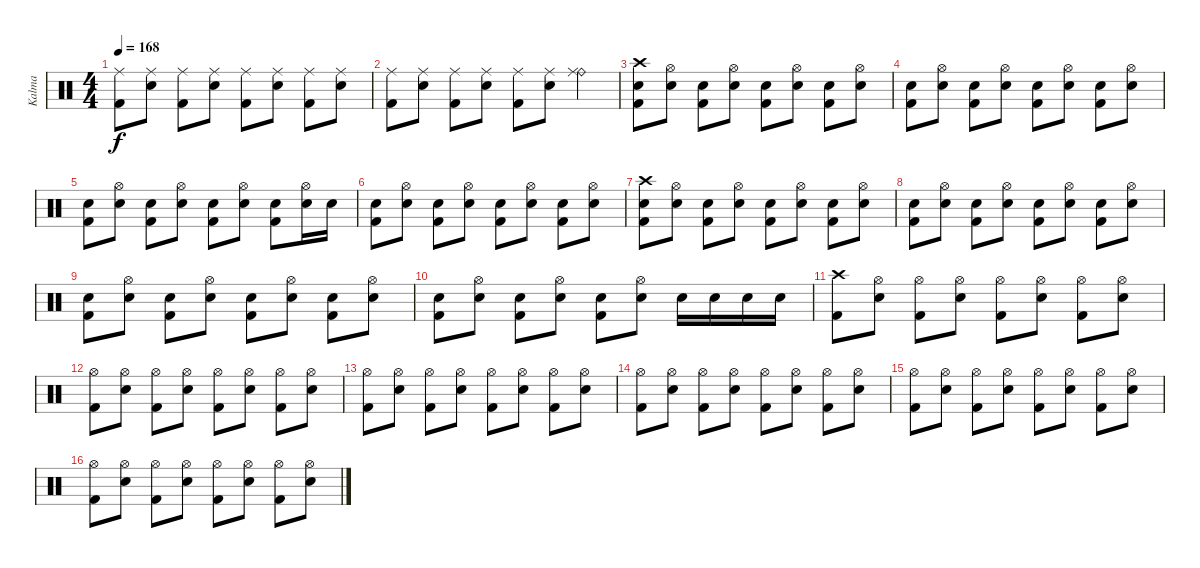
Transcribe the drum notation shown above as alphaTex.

\track ("Kalma" "Kalma") {instrument percussion}
\staff {score}
\articulation defaults
\ts (4 4)
\tempo 168
\clef neutral
\ks c
("Ride (middle)" "Kick (hit) 2").8{dy f} ("Ride (middle)" "Snare (hit) 2").8 ("Ride (middle)" "Kick (hit) 2").8 ("Ride (middle)" "Snare (hit) 2").8 ("Ride (middle)" "Kick (hit) 2").8 ("Ride (middle)" "Snare (hit) 2").8 ("Ride (middle)" "Kick (hit) 2").8 ("Ride (middle)" "Snare (hit) 2").8 |
("Ride (middle)" "Kick (hit) 2").8 ("Ride (middle)" "Snare (hit) 2").8 ("Ride (middle)" "Kick (hit) 2").8 ("Ride (middle)" "Snare (hit) 2").8 ("Ride (middle)" "Kick (hit) 2").8 ("Ride (middle)" "Snare (hit) 2").8 ("Ride (bell)" "Ride (middle)").4 |
("Crash high (hit)" "Snare (hit) 2" "Kick (hit) 2").8 ("Hi-Hat (open)" "Snare (hit) 2").8 ("Snare (hit) 2" "Kick (hit) 2").8 ("Hi-Hat (open)" "Snare (hit) 2").8 ("Snare (hit) 2" "Kick (hit) 2").8 ("Hi-Hat (open)" "Snare (hit) 2").8 ("Snare (hit) 2" "Kick (hit) 2").8 ("Hi-Hat (open)" "Snare (hit) 2").8 |
("Snare (hit) 2" "Kick (hit) 2").8 ("Hi-Hat (open)" "Snare (hit) 2").8 ("Snare (hit) 2" "Kick (hit) 2").8 ("Hi-Hat (open)" "Snare (hit) 2").8 ("Snare (hit) 2" "Kick (hit) 2").8 ("Hi-Hat (open)" "Snare (hit) 2").8 ("Snare (hit) 2" "Kick (hit) 2").8 ("Hi-Hat (open)" "Snare (hit) 2").8 |
("Snare (hit) 2" "Kick (hit) 2").8 ("Hi-Hat (open)" "Snare (hit) 2").8 ("Snare (hit) 2" "Kick (hit) 2").8 ("Hi-Hat (open)" "Snare (hit) 2").8 ("Snare (hit) 2" "Kick (hit) 2").8 ("Hi-Hat (open)" "Snare (hit) 2").8 ("Snare (hit) 2" "Kick (hit) 2").8 ("Hi-Hat (open)" "Snare (hit) 2").16 "Snare (hit) 2".16 |
("Snare (hit) 2" "Kick (hit) 2").8 ("Hi-Hat (open)" "Snare (hit) 2").8 ("Snare (hit) 2" "Kick (hit) 2").8 ("Hi-Hat (open)" "Snare (hit) 2").8 ("Snare (hit) 2" "Kick (hit) 2").8 ("Hi-Hat (open)" "Snare (hit) 2").8 ("Snare (hit) 2" "Kick (hit) 2").8 ("Hi-Hat (open)" "Snare (hit) 2").8 |
("Crash high (hit)" "Snare (hit) 2" "Kick (hit) 2").8 ("Hi-Hat (open)" "Snare (hit) 2").8 ("Snare (hit) 2" "Kick (hit) 2").8 ("Hi-Hat (open)" "Snare (hit) 2").8 ("Snare (hit) 2" "Kick (hit) 2").8 ("Hi-Hat (open)" "Snare (hit) 2").8 ("Snare (hit) 2" "Kick (hit) 2").8 ("Hi-Hat (open)" "Snare (hit) 2").8 |
("Snare (hit) 2" "Kick (hit) 2").8 ("Hi-Hat (open)" "Snare (hit) 2").8 ("Snare (hit) 2" "Kick (hit) 2").8 ("Hi-Hat (open)" "Snare (hit) 2").8 ("Snare (hit) 2" "Kick (hit) 2").8 ("Hi-Hat (open)" "Snare (hit) 2").8 ("Snare (hit) 2" "Kick (hit) 2").8 ("Hi-Hat (open)" "Snare (hit) 2").8 |
("Snare (hit) 2" "Kick (hit) 2").8 ("Hi-Hat (open)" "Snare (hit) 2").8 ("Snare (hit) 2" "Kick (hit) 2").8 ("Hi-Hat (open)" "Snare (hit) 2").8 ("Snare (hit) 2" "Kick (hit) 2").8 ("Hi-Hat (open)" "Snare (hit) 2").8 ("Snare (hit) 2" "Kick (hit) 2").8 ("Hi-Hat (open)" "Snare (hit) 2").8 |
("Snare (hit) 2" "Kick (hit) 2").8 ("Hi-Hat (open)" "Snare (hit) 2").8 ("Snare (hit) 2" "Kick (hit) 2").8 ("Hi-Hat (open)" "Snare (hit) 2").8 ("Snare (hit) 2" "Kick (hit) 2").8 ("Hi-Hat (open)" "Snare (hit) 2").8 "Snare (hit) 2".16 "Snare (hit) 2".16 "Snare (hit) 2".16 "Snare (hit) 2".16 |
("Crash high (hit)" "Kick (hit) 2").8 ("Hi-Hat (open)" "Snare (hit) 2").8 ("Hi-Hat (open)" "Kick (hit) 2").8 ("Hi-Hat (open)" "Snare (hit) 2").8 ("Hi-Hat (open)" "Kick (hit) 2").8 ("Hi-Hat (open)" "Snare (hit) 2").8 ("Hi-Hat (open)" "Kick (hit) 2").8 ("Hi-Hat (open)" "Snare (hit) 2").8 |
("Hi-Hat (open)" "Kick (hit) 2").8 ("Hi-Hat (open)" "Snare (hit) 2").8 ("Hi-Hat (open)" "Kick (hit) 2").8 ("Hi-Hat (open)" "Snare (hit) 2").8 ("Hi-Hat (open)" "Kick (hit) 2").8 ("Hi-Hat (open)" "Snare (hit) 2").8 ("Hi-Hat (open)" "Kick (hit) 2").8 ("Hi-Hat (open)" "Snare (hit) 2").8 |
("Hi-Hat (open)" "Kick (hit) 2").8 ("Hi-Hat (open)" "Snare (hit) 2").8 ("Hi-Hat (open)" "Kick (hit) 2").8 ("Hi-Hat (open)" "Snare (hit) 2").8 ("Hi-Hat (open)" "Kick (hit) 2").8 ("Hi-Hat (open)" "Snare (hit) 2").8 ("Hi-Hat (open)" "Kick (hit) 2").8 ("Hi-Hat (open)" "Snare (hit) 2").8 |
("Hi-Hat (open)" "Kick (hit) 2").8 ("Hi-Hat (open)" "Snare (hit) 2").8 ("Hi-Hat (open)" "Kick (hit) 2").8 ("Hi-Hat (open)" "Snare (hit) 2").8 ("Hi-Hat (open)" "Kick (hit) 2").8 ("Hi-Hat (open)" "Snare (hit) 2").8 ("Hi-Hat (open)" "Kick (hit) 2").8 ("Hi-Hat (open)" "Snare (hit) 2").8 |
("Hi-Hat (open)" "Kick (hit) 2").8 ("Hi-Hat (open)" "Snare (hit) 2").8 ("Hi-Hat (open)" "Kick (hit) 2").8 ("Hi-Hat (open)" "Snare (hit) 2").8 ("Hi-Hat (open)" "Kick (hit) 2").8 ("Hi-Hat (open)" "Snare (hit) 2").8 ("Hi-Hat (open)" "Kick (hit) 2").8 ("Hi-Hat (open)" "Snare (hit) 2").8 |
("Hi-Hat (open)" "Kick (hit) 2").8 ("Hi-Hat (open)" "Snare (hit) 2").8 ("Hi-Hat (open)" "Kick (hit) 2").8 ("Hi-Hat (open)" "Snare (hit) 2").8 ("Hi-Hat (open)" "Kick (hit) 2").8 ("Hi-Hat (open)" "Snare (hit) 2").8 ("Hi-Hat (open)" "Kick (hit) 2").8 ("Hi-Hat (open)" "Snare (hit) 2").8
